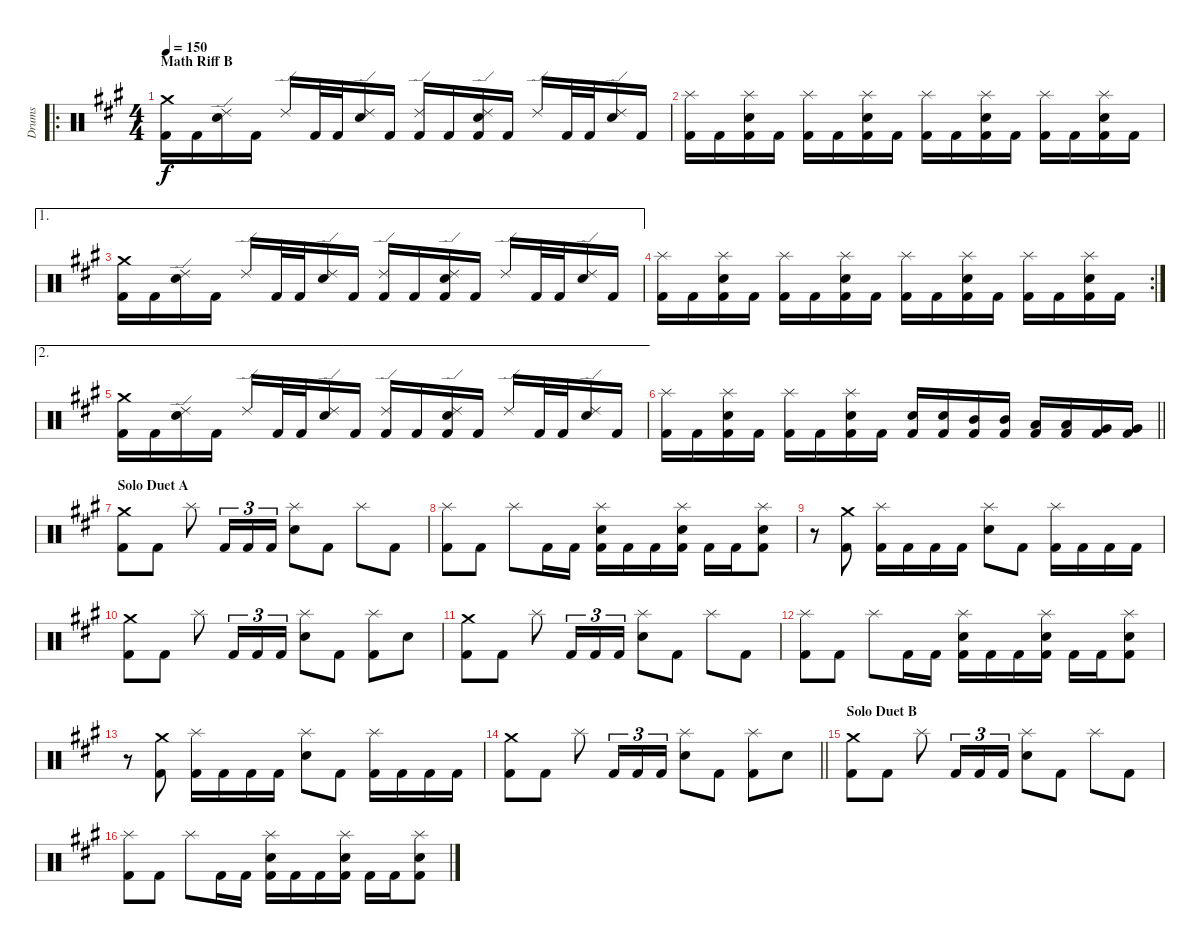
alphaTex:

\track ("Drums" "Drums") {instrument percussion}
\staff {score}
\articulation defaults
\ro
\ts (4 4)
\section ("" "Math Riff B")
\tempo 150
\clef neutral
\ks f#minor
("Crash medium (hit)" "Kick (hit) 2").16{dy f} "Kick (hit) 2".16 ("Ride (edge) 2" "Snare (hit) 2").16 "Kick (hit) 2".16 "Ride (edge) 2".16 "Kick (hit) 2".32 "Kick (hit) 2".32 ("Ride (edge) 2" "Snare (hit) 2").16 "Kick (hit) 2".16 ("Ride (edge) 2" "Kick (hit) 2").16 "Kick (hit) 2".16 ("Ride (edge) 2" "Snare (hit) 2" "Kick (hit) 2").16 "Kick (hit) 2".16 "Ride (edge) 2".16 "Kick (hit) 2".32 "Kick (hit) 2".32 ("Ride (edge) 2" "Snare (hit) 2").16 "Kick (hit) 2".16 |
("Splash (hit)" "Kick (hit) 2").16 "Kick (hit) 2".16 ("Splash (hit)" "Snare (hit) 2" "Kick (hit) 2").16 "Kick (hit) 2".16 ("Splash (hit)" "Kick (hit) 2").16 "Kick (hit) 2".16 ("Splash (hit)" "Snare (hit) 2" "Kick (hit) 2").16 "Kick (hit) 2".16 ("Splash (hit)" "Kick (hit) 2").16 "Kick (hit) 2".16 ("Splash (hit)" "Snare (hit) 2" "Kick (hit) 2").16 "Kick (hit) 2".16 ("Splash (hit)" "Kick (hit) 2").16 "Kick (hit) 2".16 ("Splash (hit)" "Snare (hit) 2" "Kick (hit) 2").16 "Kick (hit) 2".16 |
\ae 1
("Crash medium (hit)" "Kick (hit) 2").16 "Kick (hit) 2".16 ("Ride (edge) 2" "Snare (hit) 2").16 "Kick (hit) 2".16 "Ride (edge) 2".16 "Kick (hit) 2".32 "Kick (hit) 2".32 ("Ride (edge) 2" "Snare (hit) 2").16 "Kick (hit) 2".16 ("Ride (edge) 2" "Kick (hit) 2").16 "Kick (hit) 2".16 ("Ride (edge) 2" "Snare (hit) 2" "Kick (hit) 2").16 "Kick (hit) 2".16 "Ride (edge) 2".16 "Kick (hit) 2".32 "Kick (hit) 2".32 ("Ride (edge) 2" "Snare (hit) 2").16 "Kick (hit) 2".16 |
\rc 2
("Splash (hit)" "Kick (hit) 2").16 "Kick (hit) 2".16 ("Splash (hit)" "Snare (hit) 2" "Kick (hit) 2").16 "Kick (hit) 2".16 ("Splash (hit)" "Kick (hit) 2").16 "Kick (hit) 2".16 ("Splash (hit)" "Snare (hit) 2" "Kick (hit) 2").16 "Kick (hit) 2".16 ("Splash (hit)" "Kick (hit) 2").16 "Kick (hit) 2".16 ("Splash (hit)" "Snare (hit) 2" "Kick (hit) 2").16 "Kick (hit) 2".16 ("Splash (hit)" "Kick (hit) 2").16 "Kick (hit) 2".16 ("Splash (hit)" "Snare (hit) 2" "Kick (hit) 2").16 "Kick (hit) 2".16 |
\ae 2
("Crash medium (hit)" "Kick (hit) 2").16 "Kick (hit) 2".16 ("Ride (edge) 2" "Snare (hit) 2").16 "Kick (hit) 2".16 "Ride (edge) 2".16 "Kick (hit) 2".32 "Kick (hit) 2".32 ("Ride (edge) 2" "Snare (hit) 2").16 "Kick (hit) 2".16 ("Ride (edge) 2" "Kick (hit) 2").16 "Kick (hit) 2".16 ("Ride (edge) 2" "Snare (hit) 2" "Kick (hit) 2").16 "Kick (hit) 2".16 "Ride (edge) 2".16 "Kick (hit) 2".32 "Kick (hit) 2".32 ("Ride (edge) 2" "Snare (hit) 2").16 "Kick (hit) 2".16 |
\barLineRight lightlight
("Splash (hit)" "Kick (hit) 2").16 "Kick (hit) 2".16 ("Splash (hit)" "Snare (hit) 2" "Kick (hit) 2").16 "Kick (hit) 2".16 ("Splash (hit)" "Kick (hit) 2").16 "Kick (hit) 2".16 ("Splash (hit)" "Snare (hit) 2" "Kick (hit) 2").16 "Kick (hit) 2".16 ("Snare (hit) 2" "Kick (hit) 2").16 ("Snare (hit) 2" "Kick (hit) 2").16 ("Mid Tom (hit)" "Kick (hit) 2").16 ("Mid Tom (hit)" "Kick (hit) 2").16 ("Low Tom (hit)" "Kick (hit) 2").16 ("Low Tom (hit)" "Kick (hit) 2").16 ("Very Low Tom (hit)" "Kick (hit) 2").16 ("Very Low Tom (hit)" "Kick (hit) 2").16 |
\section ("" "Solo Duet A")
("Crash medium (hit)" "Kick (hit) 2").8 "Kick (hit) 2".8 "Splash (hit)".8 "Kick (hit) 2".16{tu (3 2)} "Kick (hit) 2".16{tu (3 2)} "Kick (hit) 2".16{tu (3 2)} ("Splash (hit)" "Snare (hit) 2").8 "Kick (hit) 2".8 "Splash (hit)".8 "Kick (hit) 2".8 |
("Splash (hit)" "Kick (hit) 2").8 "Kick (hit) 2".8 "Splash (hit)".8 "Kick (hit) 2".16 "Kick (hit) 2".16 ("Splash (hit)" "Snare (hit) 2" "Kick (hit) 2").16 "Kick (hit) 2".16 "Kick (hit) 2".16 ("Splash (hit)" "Snare (hit) 2" "Kick (hit) 2").16 "Kick (hit) 2".16 "Kick (hit) 2".16 ("Splash (hit)" "Snare (hit) 2" "Kick (hit) 2").8 |
r.8 ("Crash medium (hit)" "Kick (hit) 2").8 ("Splash (hit)" "Kick (hit) 2").16 "Kick (hit) 2".16 "Kick (hit) 2".16 "Kick (hit) 2".16 ("Splash (hit)" "Snare (hit) 2").8 "Kick (hit) 2".8 ("Splash (hit)" "Kick (hit) 2").16 "Kick (hit) 2".16 "Kick (hit) 2".16 "Kick (hit) 2".16 |
("Crash medium (hit)" "Kick (hit) 2").8 "Kick (hit) 2".8 "Splash (hit)".8 "Kick (hit) 2".16{tu (3 2)} "Kick (hit) 2".16{tu (3 2)} "Kick (hit) 2".16{tu (3 2)} ("Splash (hit)" "Snare (hit) 2").8 "Kick (hit) 2".8 ("Splash (hit)" "Kick (hit) 2").8 "Snare (hit) 2".8 |
("Crash medium (hit)" "Kick (hit) 2").8 "Kick (hit) 2".8 "Splash (hit)".8 "Kick (hit) 2".16{tu (3 2)} "Kick (hit) 2".16{tu (3 2)} "Kick (hit) 2".16{tu (3 2)} ("Splash (hit)" "Snare (hit) 2").8 "Kick (hit) 2".8 "Splash (hit)".8 "Kick (hit) 2".8 |
("Splash (hit)" "Kick (hit) 2").8 "Kick (hit) 2".8 "Splash (hit)".8 "Kick (hit) 2".16 "Kick (hit) 2".16 ("Splash (hit)" "Snare (hit) 2" "Kick (hit) 2").16 "Kick (hit) 2".16 "Kick (hit) 2".16 ("Splash (hit)" "Snare (hit) 2" "Kick (hit) 2").16 "Kick (hit) 2".16 "Kick (hit) 2".16 ("Splash (hit)" "Snare (hit) 2" "Kick (hit) 2").8 |
r.8 ("Crash medium (hit)" "Kick (hit) 2").8 ("Splash (hit)" "Kick (hit) 2").16 "Kick (hit) 2".16 "Kick (hit) 2".16 "Kick (hit) 2".16 ("Splash (hit)" "Snare (hit) 2").8 "Kick (hit) 2".8 ("Splash (hit)" "Kick (hit) 2").16 "Kick (hit) 2".16 "Kick (hit) 2".16 "Kick (hit) 2".16 |
\barLineRight lightlight
("Crash medium (hit)" "Kick (hit) 2").8 "Kick (hit) 2".8 "Splash (hit)".8 "Kick (hit) 2".16{tu (3 2)} "Kick (hit) 2".16{tu (3 2)} "Kick (hit) 2".16{tu (3 2)} ("Splash (hit)" "Snare (hit) 2").8 "Kick (hit) 2".8 ("Splash (hit)" "Kick (hit) 2").8 "Snare (hit) 2".8 |
\section ("" "Solo Duet B")
("Crash medium (hit)" "Kick (hit) 2").8 "Kick (hit) 2".8 "Splash (hit)".8 "Kick (hit) 2".16{tu (3 2)} "Kick (hit) 2".16{tu (3 2)} "Kick (hit) 2".16{tu (3 2)} ("Splash (hit)" "Snare (hit) 2").8 "Kick (hit) 2".8 "Splash (hit)".8 "Kick (hit) 2".8 |
("Splash (hit)" "Kick (hit) 2").8 "Kick (hit) 2".8 "Splash (hit)".8 "Kick (hit) 2".16 "Kick (hit) 2".16 ("Splash (hit)" "Snare (hit) 2" "Kick (hit) 2").16 "Kick (hit) 2".16 "Kick (hit) 2".16 ("Splash (hit)" "Snare (hit) 2" "Kick (hit) 2").16 "Kick (hit) 2".16 "Kick (hit) 2".16 ("Splash (hit)" "Snare (hit) 2" "Kick (hit) 2").8
